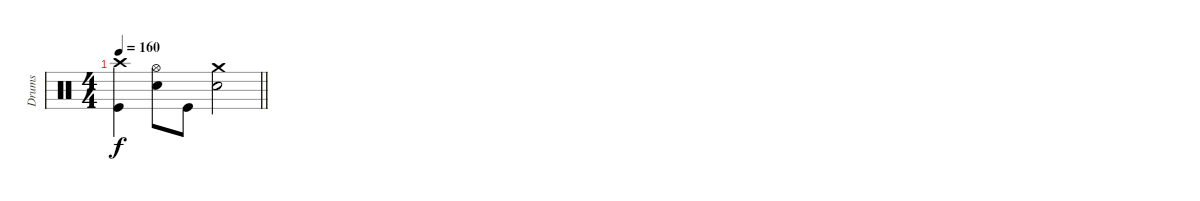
\track ("Drums" "Drums") {instrument percussion}
\staff {score}
\articulation defaults
\ts (4 4)
\tempo 160
\clef neutral
\barLineRight lightlight
\ks c
("Crash high (hit)" "Kick (hit)").4{dy f} ("Hi-Hat (open)" "Snare (hit) 2").8 "Kick (hit)".8 ("Crash medium (hit)" "Snare (hit) 2").2
